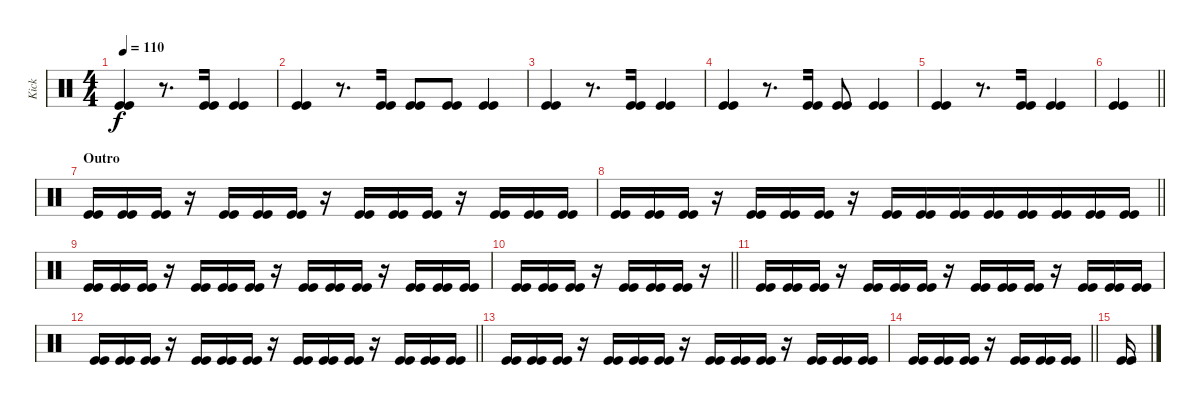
\track ("Kick" "Kick") {instrument percussion}
\staff {score}
\articulation defaults
\ts (4 4)
\tempo 110
\clef neutral
\ks c
("Kick (hit)" "Kick (hit)").4{dy f beam merge} r.8{d} ("Kick (hit)" "Kick (hit)").16 ("Kick (hit)" "Kick (hit)").4 |
("Kick (hit)" "Kick (hit)").4{beam merge} r.8{d} ("Kick (hit)" "Kick (hit)").16 ("Kick (hit)" "Kick (hit)").8 ("Kick (hit)" "Kick (hit)").8{beam merge} ("Kick (hit)" "Kick (hit)").4 |
("Kick (hit)" "Kick (hit)").4{beam merge} r.8{d} ("Kick (hit)" "Kick (hit)").16 ("Kick (hit)" "Kick (hit)").4 |
("Kick (hit)" "Kick (hit)").4{beam merge} r.8{d} ("Kick (hit)" "Kick (hit)").16 ("Kick (hit)" "Kick (hit)").8 ("Kick (hit)" "Kick (hit)").4 |
("Kick (hit)" "Kick (hit)").4{beam merge} r.8{d} ("Kick (hit)" "Kick (hit)").16 ("Kick (hit)" "Kick (hit)").4 |
\barLineRight lightlight
("Kick (hit)" "Kick (hit)").4 |
\section ("" "Outro")
("Kick (hit)" "Kick (hit)").16 ("Kick (hit)" "Kick (hit)").16{beam merge} ("Kick (hit)" "Kick (hit)").16 r.16 ("Kick (hit)" "Kick (hit)").16 ("Kick (hit)" "Kick (hit)").16 ("Kick (hit)" "Kick (hit)").16 r.16 ("Kick (hit)" "Kick (hit)").16 ("Kick (hit)" "Kick (hit)").16 ("Kick (hit)" "Kick (hit)").16 r.16{beam merge} ("Kick (hit)" "Kick (hit)").16{beam merge} ("Kick (hit)" "Kick (hit)").16 ("Kick (hit)" "Kick (hit)").16 |
\barLineRight lightlight
("Kick (hit)" "Kick (hit)").16 ("Kick (hit)" "Kick (hit)").16{beam merge} ("Kick (hit)" "Kick (hit)").16 r.16 ("Kick (hit)" "Kick (hit)").16 ("Kick (hit)" "Kick (hit)").16 ("Kick (hit)" "Kick (hit)").16 r.16 ("Kick (hit)" "Kick (hit)").16 ("Kick (hit)" "Kick (hit)").16 ("Kick (hit)" "Kick (hit)").16 ("Kick (hit)" "Kick (hit)").16{beam merge} ("Kick (hit)" "Kick (hit)").16{beam merge} ("Kick (hit)" "Kick (hit)").16 ("Kick (hit)" "Kick (hit)").16 ("Kick (hit)" "Kick (hit)").16 |
("Kick (hit)" "Kick (hit)").16 ("Kick (hit)" "Kick (hit)").16{beam merge} ("Kick (hit)" "Kick (hit)").16 r.16 ("Kick (hit)" "Kick (hit)").16 ("Kick (hit)" "Kick (hit)").16 ("Kick (hit)" "Kick (hit)").16 r.16 ("Kick (hit)" "Kick (hit)").16 ("Kick (hit)" "Kick (hit)").16 ("Kick (hit)" "Kick (hit)").16 r.16{beam merge} ("Kick (hit)" "Kick (hit)").16{beam merge} ("Kick (hit)" "Kick (hit)").16 ("Kick (hit)" "Kick (hit)").16 |
\barLineRight lightlight
("Kick (hit)" "Kick (hit)").16 ("Kick (hit)" "Kick (hit)").16{beam merge} ("Kick (hit)" "Kick (hit)").16 r.16 ("Kick (hit)" "Kick (hit)").16 ("Kick (hit)" "Kick (hit)").16 ("Kick (hit)" "Kick (hit)").16 r.16 |
("Kick (hit)" "Kick (hit)").16 ("Kick (hit)" "Kick (hit)").16{beam merge} ("Kick (hit)" "Kick (hit)").16 r.16 ("Kick (hit)" "Kick (hit)").16 ("Kick (hit)" "Kick (hit)").16 ("Kick (hit)" "Kick (hit)").16 r.16 ("Kick (hit)" "Kick (hit)").16 ("Kick (hit)" "Kick (hit)").16 ("Kick (hit)" "Kick (hit)").16 r.16{beam merge} ("Kick (hit)" "Kick (hit)").16{beam merge} ("Kick (hit)" "Kick (hit)").16 ("Kick (hit)" "Kick (hit)").16 |
\barLineRight lightlight
("Kick (hit)" "Kick (hit)").16 ("Kick (hit)" "Kick (hit)").16{beam merge} ("Kick (hit)" "Kick (hit)").16 r.16 ("Kick (hit)" "Kick (hit)").16 ("Kick (hit)" "Kick (hit)").16 ("Kick (hit)" "Kick (hit)").16 r.16 ("Kick (hit)" "Kick (hit)").16 ("Kick (hit)" "Kick (hit)").16 ("Kick (hit)" "Kick (hit)").16 r.16{beam merge} ("Kick (hit)" "Kick (hit)").16{beam merge} ("Kick (hit)" "Kick (hit)").16 ("Kick (hit)" "Kick (hit)").16 |
("Kick (hit)" "Kick (hit)").16 ("Kick (hit)" "Kick (hit)").16{beam merge} ("Kick (hit)" "Kick (hit)").16 r.16 ("Kick (hit)" "Kick (hit)").16 ("Kick (hit)" "Kick (hit)").16 ("Kick (hit)" "Kick (hit)").16 r.16 ("Kick (hit)" "Kick (hit)").16 ("Kick (hit)" "Kick (hit)").16 ("Kick (hit)" "Kick (hit)").16 r.16{beam merge} ("Kick (hit)" "Kick (hit)").16{beam merge} ("Kick (hit)" "Kick (hit)").16 ("Kick (hit)" "Kick (hit)").16 |
\barLineRight lightlight
("Kick (hit)" "Kick (hit)").16 ("Kick (hit)" "Kick (hit)").16{beam merge} ("Kick (hit)" "Kick (hit)").16 r.16 ("Kick (hit)" "Kick (hit)").16 ("Kick (hit)" "Kick (hit)").16 ("Kick (hit)" "Kick (hit)").16 |
("Kick (hit)" "Kick (hit)").16
